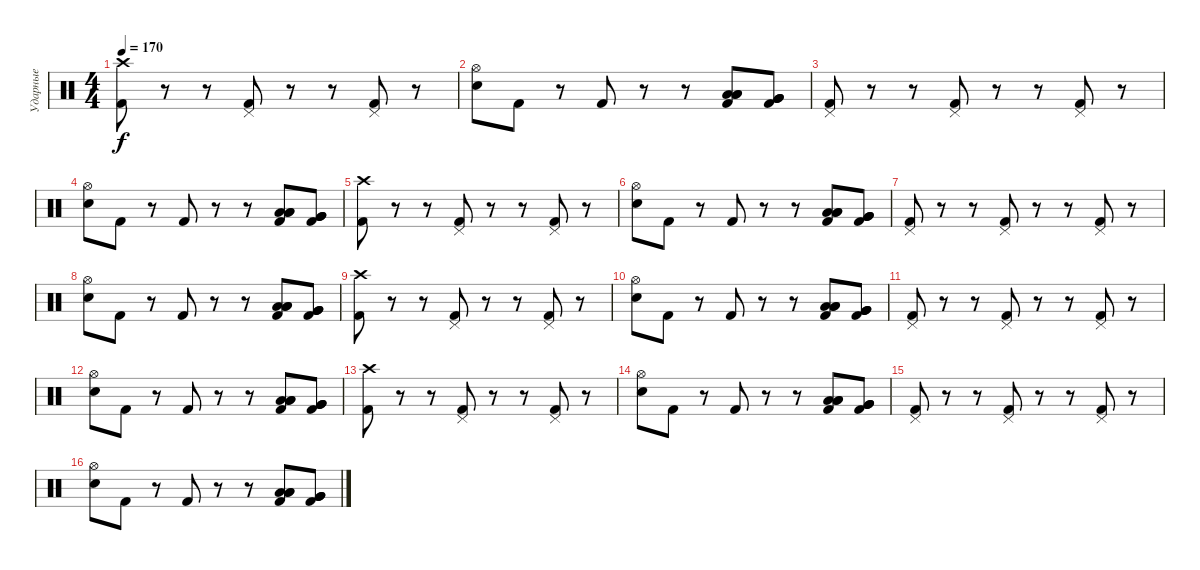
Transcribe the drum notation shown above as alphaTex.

\track ("Ударные" "Ударные") {instrument percussion}
\staff {score}
\articulation defaults
\ts (4 4)
\tempo 170
\clef neutral
\ks c
("Crash high (hit)" "Kick (hit) 2").8{dy f} r.8 r.8 ("Pedal Hi-Hat (hit)" "Kick (hit) 2").8 r.8 r.8 ("Pedal Hi-Hat (hit)" "Kick (hit) 2").8 r.8 |
("Hi-Hat (open)" "Snare (hit) 2").8 "Kick (hit) 2".8 r.8 "Kick (hit) 2".8 r.8 r.8 ("Low Tom (hit)" "Low Tom (hit)" "Low Tom (hit)" "Kick (hit) 2").8 ("Very Low Tom (hit)" "Very Low Tom (hit)" "Very Low Tom (hit)" "Kick (hit) 2").8 |
("Pedal Hi-Hat (hit)" "Kick (hit) 2").8 r.8 r.8 ("Pedal Hi-Hat (hit)" "Kick (hit) 2").8 r.8 r.8 ("Pedal Hi-Hat (hit)" "Kick (hit) 2").8 r.8 |
("Hi-Hat (open)" "Snare (hit) 2").8 "Kick (hit) 2".8 r.8 "Kick (hit) 2".8 r.8 r.8 ("Low Tom (hit)" "Low Tom (hit)" "Low Tom (hit)" "Kick (hit) 2").8 ("Very Low Tom (hit)" "Very Low Tom (hit)" "Very Low Tom (hit)" "Kick (hit) 2").8 |
("Crash high (hit)" "Kick (hit) 2").8 r.8 r.8 ("Pedal Hi-Hat (hit)" "Kick (hit) 2").8 r.8 r.8 ("Pedal Hi-Hat (hit)" "Kick (hit) 2").8 r.8 |
("Hi-Hat (open)" "Snare (hit) 2").8 "Kick (hit) 2".8 r.8 "Kick (hit) 2".8 r.8 r.8 ("Low Tom (hit)" "Low Tom (hit)" "Low Tom (hit)" "Kick (hit) 2").8 ("Very Low Tom (hit)" "Very Low Tom (hit)" "Very Low Tom (hit)" "Kick (hit) 2").8 |
("Pedal Hi-Hat (hit)" "Kick (hit) 2").8 r.8 r.8 ("Pedal Hi-Hat (hit)" "Kick (hit) 2").8 r.8 r.8 ("Pedal Hi-Hat (hit)" "Kick (hit) 2").8 r.8 |
("Hi-Hat (open)" "Snare (hit) 2").8 "Kick (hit) 2".8 r.8 "Kick (hit) 2".8 r.8 r.8 ("Low Tom (hit)" "Low Tom (hit)" "Low Tom (hit)" "Kick (hit) 2").8 ("Very Low Tom (hit)" "Very Low Tom (hit)" "Very Low Tom (hit)" "Kick (hit) 2").8 |
("Crash high (hit)" "Kick (hit) 2").8 r.8 r.8 ("Pedal Hi-Hat (hit)" "Kick (hit) 2").8 r.8 r.8 ("Pedal Hi-Hat (hit)" "Kick (hit) 2").8 r.8 |
("Hi-Hat (open)" "Snare (hit) 2").8 "Kick (hit) 2".8 r.8 "Kick (hit) 2".8 r.8 r.8 ("Low Tom (hit)" "Low Tom (hit)" "Low Tom (hit)" "Kick (hit) 2").8 ("Very Low Tom (hit)" "Very Low Tom (hit)" "Very Low Tom (hit)" "Kick (hit) 2").8 |
("Pedal Hi-Hat (hit)" "Kick (hit) 2").8 r.8 r.8 ("Pedal Hi-Hat (hit)" "Kick (hit) 2").8 r.8 r.8 ("Pedal Hi-Hat (hit)" "Kick (hit) 2").8 r.8 |
("Hi-Hat (open)" "Snare (hit) 2").8 "Kick (hit) 2".8 r.8 "Kick (hit) 2".8 r.8 r.8 ("Low Tom (hit)" "Low Tom (hit)" "Low Tom (hit)" "Kick (hit) 2").8 ("Very Low Tom (hit)" "Very Low Tom (hit)" "Very Low Tom (hit)" "Kick (hit) 2").8 |
("Crash high (hit)" "Kick (hit) 2").8 r.8 r.8 ("Pedal Hi-Hat (hit)" "Kick (hit) 2").8 r.8 r.8 ("Pedal Hi-Hat (hit)" "Kick (hit) 2").8 r.8 |
("Hi-Hat (open)" "Snare (hit) 2").8 "Kick (hit) 2".8 r.8 "Kick (hit) 2".8 r.8 r.8 ("Low Tom (hit)" "Low Tom (hit)" "Low Tom (hit)" "Kick (hit) 2").8 ("Very Low Tom (hit)" "Very Low Tom (hit)" "Very Low Tom (hit)" "Kick (hit) 2").8 |
("Pedal Hi-Hat (hit)" "Kick (hit) 2").8 r.8 r.8 ("Pedal Hi-Hat (hit)" "Kick (hit) 2").8 r.8 r.8 ("Pedal Hi-Hat (hit)" "Kick (hit) 2").8 r.8 |
("Hi-Hat (open)" "Snare (hit) 2").8 "Kick (hit) 2".8 r.8 "Kick (hit) 2".8 r.8 r.8 ("Low Tom (hit)" "Low Tom (hit)" "Low Tom (hit)" "Kick (hit) 2").8 ("Very Low Tom (hit)" "Very Low Tom (hit)" "Very Low Tom (hit)" "Kick (hit) 2").8
